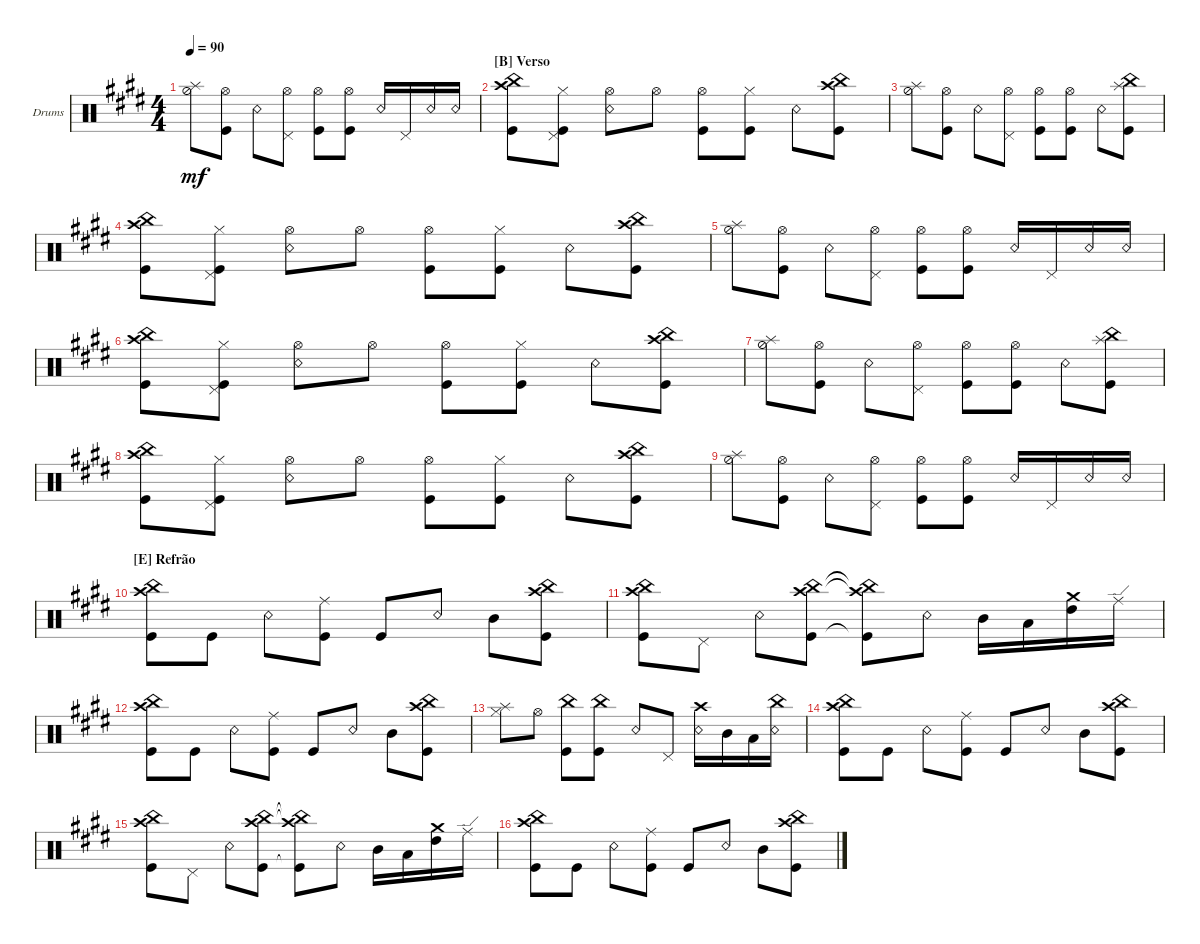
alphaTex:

\defaultSystemsLayout 4
\bracketExtendMode groupsimilarinstruments
\firstSystemTrackNameOrientation horizontal
\otherSystemsTrackNameOrientation horizontal
\track ("Drum" "Drums") {multiBarRest instrument percussion}
\staff {score}
\articulation defaults
\ts (4 4)
\tempo 90
\clef neutral
\ks e
("Hi-Hat (half)" "Splash (hit)").8{dy mf} ("Kick (hit)" "Hi-Hat (open)").8 "Snare (rim shot)".8 ("Pedal Hi-Hat (hit)" "Hi-Hat (open)").8 ("Kick (hit)" "Hi-Hat (open)").8 ("Kick (hit)" "Hi-Hat (open)").8 "Snare (rim shot)".16 "Pedal Hi-Hat (hit)".16 "Snare (rim shot)".16 "Snare (rim shot)".16 |
\section ("B" "Verso")
("Kick (hit)" "China (hit)" "Crash high (hit)").8 ("Kick (hit)" "Pedal Hi-Hat (hit)" "Hi-Hat (closed)").8 ("Snare (rim shot)" "Hi-Hat (open)").8 "Hi-Hat (open)".8 ("Kick (hit)" "Hi-Hat (open)").8 ("Kick (hit)" "Hi-Hat (closed)").8 "Snare (rim shot)".8 ("Crash high (hit)" "Kick (hit)" "China (hit)").8 |
("Hi-Hat (half)" "Splash (hit)").8 ("Kick (hit)" "Hi-Hat (open)").8 "Snare (rim shot)".8 ("Pedal Hi-Hat (hit)" "Hi-Hat (open)").8 ("Kick (hit)" "Hi-Hat (open)").8 ("Kick (hit)" "Hi-Hat (open)").8 "Snare (rim shot)".8 ("China (hit)" "Kick (hit)" "Splash (hit)").8 |
("Kick (hit)" "China (hit)" "Crash high (hit)").8 ("Kick (hit)" "Pedal Hi-Hat (hit)" "Hi-Hat (closed)").8 ("Snare (rim shot)" "Hi-Hat (open)").8 "Hi-Hat (open)".8 ("Kick (hit)" "Hi-Hat (open)").8 ("Kick (hit)" "Hi-Hat (closed)").8 "Snare (rim shot)".8 ("Crash high (hit)" "Kick (hit)" "China (hit)").8 |
("Hi-Hat (half)" "Splash (hit)").8 ("Kick (hit)" "Hi-Hat (open)").8 "Snare (rim shot)".8 ("Pedal Hi-Hat (hit)" "Hi-Hat (open)").8 ("Kick (hit)" "Hi-Hat (open)").8 ("Kick (hit)" "Hi-Hat (open)").8 "Snare (rim shot)".16 "Pedal Hi-Hat (hit)".16 "Snare (rim shot)".16 "Snare (rim shot)".16 |
("Kick (hit)" "China (hit)" "Crash high (hit)").8 ("Kick (hit)" "Pedal Hi-Hat (hit)" "Hi-Hat (closed)").8 ("Snare (rim shot)" "Hi-Hat (open)").8 "Hi-Hat (open)".8 ("Kick (hit)" "Hi-Hat (open)").8 ("Kick (hit)" "Hi-Hat (closed)").8 "Snare (rim shot)".8 ("Crash high (hit)" "Kick (hit)" "China (hit)").8 |
("Hi-Hat (half)" "Splash (hit)").8 ("Kick (hit)" "Hi-Hat (open)").8 "Snare (rim shot)".8 ("Pedal Hi-Hat (hit)" "Hi-Hat (open)").8 ("Kick (hit)" "Hi-Hat (open)").8 ("Kick (hit)" "Hi-Hat (open)").8 "Snare (rim shot)".8 ("China (hit)" "Kick (hit)" "Splash (hit)").8 |
("Kick (hit)" "China (hit)" "Crash high (hit)").8 ("Kick (hit)" "Pedal Hi-Hat (hit)" "Hi-Hat (closed)").8 ("Snare (rim shot)" "Hi-Hat (open)").8 "Hi-Hat (open)".8 ("Kick (hit)" "Hi-Hat (open)").8 ("Kick (hit)" "Hi-Hat (closed)").8 "Snare (rim shot)".8 ("Crash high (hit)" "Kick (hit)" "China (hit)").8 |
("Hi-Hat (half)" "Splash (hit)").8 ("Kick (hit)" "Hi-Hat (open)").8 "Snare (rim shot)".8 ("Pedal Hi-Hat (hit)" "Hi-Hat (open)").8 ("Kick (hit)" "Hi-Hat (open)").8 ("Kick (hit)" "Hi-Hat (open)").8 "Snare (rim shot)".16 "Pedal Hi-Hat (hit)".16 "Snare (rim shot)".16 "Snare (rim shot)".16 |
\section ("E" "Refrão")
("Kick (hit)" "Crash high (hit)" "China (hit)").8 "Kick (hit)".8 "Snare (rim shot)".8 ("Kick (hit)" "Ride (middle)").8 "Kick (hit)".8 "Snare (rim shot)".8 "Mid Tom (hit)".8 ("Crash high (hit)" "China (hit)" "Kick (hit)").8 |
("Kick (hit)" "Crash high (hit)" "China (hit)").8 "Pedal Hi-Hat (hit)".8 "Snare (rim shot)".8 ("Kick (hit)" "Crash high (hit)" "China (hit)").8 ("Kick (hit)"{t} "Crash high (hit)"{t} "China (hit)"{t}).8 "Snare (rim shot)".8 "Mid Tom (hit)".16 "Low Tom (hit)".16 ("High Tom (hit)" "Crash medium (hit)").16 "Ride (edge)".16 |
("Kick (hit)" "Crash high (hit)" "China (hit)").8 "Kick (hit)".8 "Snare (rim shot)".8 ("Kick (hit)" "Ride (middle)").8 "Kick (hit)".8 "Snare (rim shot)".8 "Mid Tom (hit)".8 ("Crash high (hit)" "China (hit)" "Kick (hit)").8 |
("Hi-Hat (closed)" "Splash (hit)").8 "Hi-Hat (open)".8 ("Kick (hit)" "China (hit)").8 ("Kick (hit)" "China (hit)").8 "Snare (rim shot)".8 "Pedal Hi-Hat (hit)".8 ("Snare (rim shot)" "Crash high (hit)").16 "Mid Tom (hit)".16 "Low Tom (hit)".16 ("Snare (rim shot)" "China (hit)").16 |
("Kick (hit)" "Crash high (hit)" "China (hit)").8 "Kick (hit)".8 "Snare (rim shot)".8 ("Kick (hit)" "Ride (middle)").8 "Kick (hit)".8 "Snare (rim shot)".8 "Mid Tom (hit)".8 ("Crash high (hit)" "China (hit)" "Kick (hit)").8 |
("Kick (hit)" "Crash high (hit)" "China (hit)").8 "Pedal Hi-Hat (hit)".8 "Snare (rim shot)".8 ("Kick (hit)" "Crash high (hit)" "China (hit)").8 ("Kick (hit)"{t} "Crash high (hit)"{t} "China (hit)"{t}).8 "Snare (rim shot)".8 "Mid Tom (hit)".16 "Low Tom (hit)".16 ("High Tom (hit)" "Crash medium (hit)").16 "Ride (edge)".16 |
("Kick (hit)" "Crash high (hit)" "China (hit)").8 "Kick (hit)".8 "Snare (rim shot)".8 ("Kick (hit)" "Ride (middle)").8 "Kick (hit)".8 "Snare (rim shot)".8 "Mid Tom (hit)".8 ("Crash high (hit)" "China (hit)" "Kick (hit)").8
